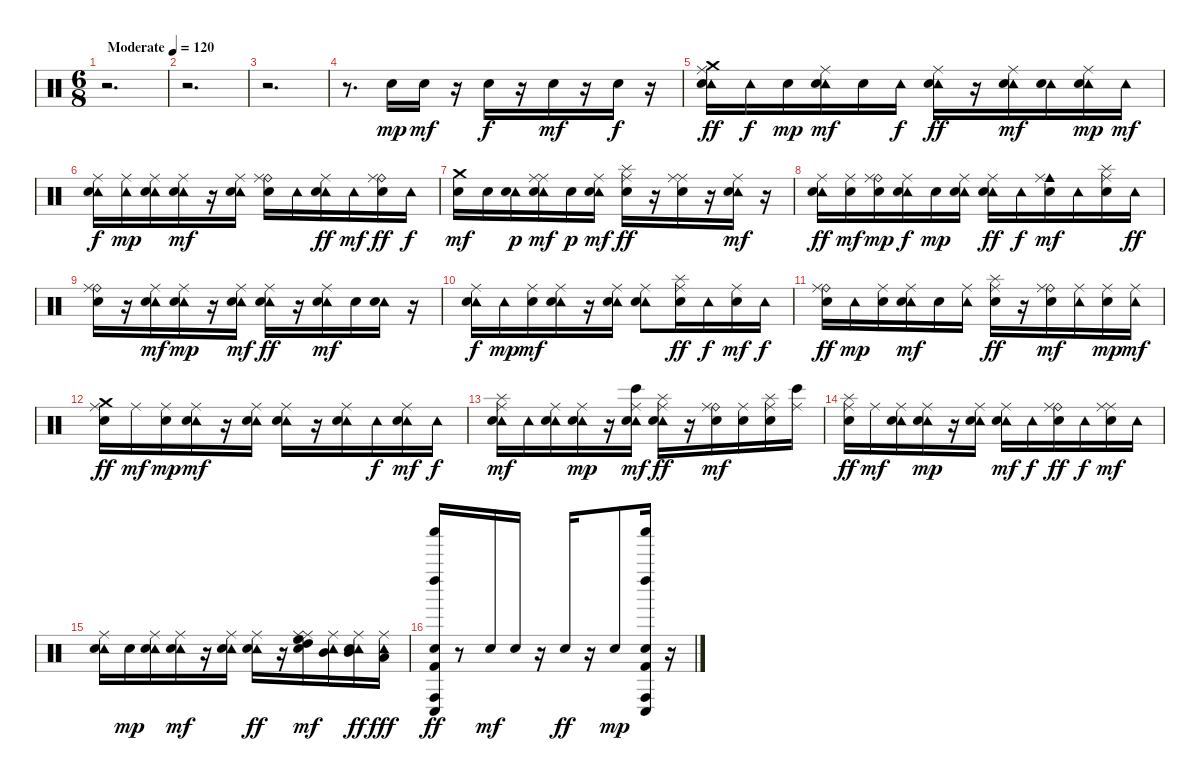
\track "" {instrument percussion}
\staff {score}
\articulation defaults
\ts (6 8)
\tempo (120 "Moderate")
\clef neutral
\ks c
r.2{d dy mp} |
r.2{d} |
r.2{d} |
r.8{d} "Hand Clap (hit)".16 "Hand Clap (hit)".16{dy mf} r.16 "Hand Clap (hit)".16{dy f} r.16 "Hand Clap (hit)".16{dy mf} r.16 "Hand Clap (hit)".16{dy f} r.16 |
("Crash medium (hit)" "Tambourine (hit)" "Ride (middle)" "Hand Clap (hit)").16{dy ff} "Tambourine (hit)".16{dy f} "Hand Clap (hit)".16{dy mp} ("Tambourine (hit)" "Ride (middle)" "Hand Clap (hit)").16{dy mf} "Hand Clap (hit)".16 "Tambourine (hit)".16{dy f} ("Tambourine (hit)" "Ride (middle)" "Hand Clap (hit)").16{dy ff} r.16 ("Tambourine (hit)" "Ride (middle)" "Hand Clap (hit)").16{dy mf} ("Tambourine (hit)" "Hand Clap (hit)").16 ("Tambourine (hit)" "Ride (middle)" "Hand Clap (hit)").16{dy mp} "Tambourine (hit)".16{dy mf} |
("Tambourine (hit)" "Ride (middle)" "Hand Clap (hit)").16{dy f} ("Tambourine (hit)" "Ride (middle)").16{dy mp} ("Tambourine (hit)" "Ride (middle)" "Hand Clap (hit)").16 ("Tambourine (hit)" "Ride (middle)" "Hand Clap (hit)").16{dy mf} r.16 ("Tambourine (hit)" "Ride (middle)" "Hand Clap (hit)").16 ("Ride (bell)" "Ride (middle)" "Hand Clap (hit)").16 "Tambourine (hit)".16 ("Tambourine (hit)" "Ride (middle)" "Hand Clap (hit)").16{dy ff} "Tambourine (hit)".16{dy mf} ("Ride (bell)" "Ride (middle)" "Hand Clap (hit)").16{dy ff} "Tambourine (hit)".16{dy f} |
("Crash medium (hit)" "Hand Clap (hit)").16{dy mf} "Hand Clap (hit)".16 ("Tambourine (hit)" "Hand Clap (hit)").16{dy p} ("Tambourine (hit)" "Ride (middle)" "Ride (middle)" "Hand Clap (hit)").16{dy mf} "Hand Clap (hit)".16{dy p} ("Tambourine (hit)" "Ride (middle)" "Hand Clap (hit)").16{dy mf} ("Splash (hit)" "Ride (middle)" "Hand Clap (hit)").16{dy ff} r.16 ("Ride (middle)" "Ride (middle)" "Hand Clap (hit)").16 r.16 ("Tambourine (hit)" "Ride (middle)" "Hand Clap (hit)").16{dy mf} r.16 |
("Tambourine (hit)" "Ride (middle)" "Hand Clap (hit)").16{dy ff} ("Ride (middle)" "Hand Clap (hit)").16{dy mf} ("Ride (bell)" "Ride (middle)" "Hand Clap (hit)").16{dy mp} ("Tambourine (hit)" "Ride (middle)" "Hand Clap (hit)").16{dy f} "Hand Clap (hit)".16{dy mp} ("Tambourine (hit)" "Ride (middle)" "Hand Clap (hit)").16 ("Tambourine (hit)" "Ride (middle)" "Hand Clap (hit)").16{dy ff} "Tambourine (hit)".16{dy f} ("Cowbell medium (hit)" "Ride (middle)" "Hand Clap (hit)").16{dy mf} "Tambourine (hit)".16 ("Splash (hit)" "Ride (middle)" "Hand Clap (hit)").16 "Tambourine (hit)".16{dy ff} |
("Ride (bell)" "Ride (middle)" "Hand Clap (hit)").16 r.16 ("Tambourine (hit)" "Ride (middle)" "Hand Clap (hit)").16{dy mf} ("Tambourine (hit)" "Ride (middle)" "Hand Clap (hit)").16{dy mp} r.16 ("Tambourine (hit)" "Ride (middle)" "Hand Clap (hit)").16{dy mf} ("Tambourine (hit)" "Ride (middle)" "Hand Clap (hit)").16{dy ff} r.16 ("Tambourine (hit)" "Ride (middle)" "Hand Clap (hit)").16{dy mf} "Hand Clap (hit)".16 ("Tambourine (hit)" "Hand Clap (hit)").16 r.16 |
("Tambourine (hit)" "Ride (middle)" "Hand Clap (hit)").16{dy f} "Tambourine (hit)".16{dy mp} ("Ride (middle)" "Hand Clap (hit)").16{dy mf} ("Tambourine (hit)" "Ride (middle)" "Hand Clap (hit)").16 r.16 ("Tambourine (hit)" "Ride (middle)" "Hand Clap (hit)").16 ("Tambourine (hit)" "Ride (middle)" "Hand Clap (hit)").8 ("Splash (hit)" "Ride (middle)" "Hand Clap (hit)").16{dy ff} "Tambourine (hit)".16{dy f} ("Ride (middle)" "Hand Clap (hit)").16{dy mf} "Tambourine (hit)".16{dy f} |
("Ride (bell)" "Ride (middle)" "Hand Clap (hit)").16{dy ff} "Tambourine (hit)".16{dy mp} ("Ride (middle)" "Hand Clap (hit)").16 ("Tambourine (hit)" "Ride (middle)" "Hand Clap (hit)").16{dy mf} "Hand Clap (hit)".16 ("Tambourine (hit)" "Ride (middle)").16 ("Splash (hit)" "Ride (middle)" "Hand Clap (hit)").16{dy ff} r.16 ("Ride (bell)" "Ride (middle)" "Hand Clap (hit)").16{dy mf} ("Tambourine (hit)" "Ride (middle)").16 ("Ride (middle)" "Hand Clap (hit)").16{dy mp} ("Tambourine (hit)" "Ride (middle)").16{dy mf} |
("Crash medium (hit)" "Ride (middle)" "Hand Clap (hit)").16{dy ff} "Ride (middle)".16{dy mf} ("Ride (middle)" "Hand Clap (hit)").16{dy mp} ("Tambourine (hit)" "Ride (middle)" "Hand Clap (hit)").16{dy mf} r.16 ("Tambourine (hit)" "Ride (middle)" "Hand Clap (hit)").16 ("Tambourine (hit)" "Ride (middle)" "Hand Clap (hit)").16 r.16 ("Tambourine (hit)" "Ride (middle)" "Hand Clap (hit)").16 "Tambourine (hit)".16{dy f} ("Tambourine (hit)" "Ride (middle)" "Hand Clap (hit)").16{dy mf} "Tambourine (hit)".16{dy f} |
("Tambourine (hit)" "Splash (hit)" "Ride (middle)" "Hand Clap (hit)").16{dy mf} "Tambourine (hit)".16 ("Tambourine (hit)" "Ride (middle)" "Hand Clap (hit)").16 ("Tambourine (hit)" "Ride (middle)" "Hand Clap (hit)").16{dy mp} r.16 ("Tambourine (hit)" "Bongo High (hit)" "Ride (middle)" "Hand Clap (hit)").16{dy mf} ("Tambourine (hit)" "Splash (hit)" "Ride (middle)" "Hand Clap (hit)").16{dy ff} r.16 ("Ride (bell)" "Ride (middle)" "Hand Clap (hit)").16{dy mf} ("Ride (middle)" "Hand Clap (hit)").16 ("Splash (hit)" "Ride (middle)" "Hand Clap (hit)").16 ("Bongo High (hit)" "Ride (middle)").16 |
("Splash (hit)" "Ride (middle)" "Hand Clap (hit)").16{dy ff} "Ride (middle)".16{dy mf} ("Tambourine (hit)" "Ride (middle)" "Hand Clap (hit)").16 ("Tambourine (hit)" "Ride (middle)" "Hand Clap (hit)").16{dy mp} r.16 ("Tambourine (hit)" "Ride (middle)" "Hand Clap (hit)").16 ("Tambourine (hit)" "Ride (middle)" "Hand Clap (hit)").16{dy mf} "Tambourine (hit)".16{dy f} ("Ride (bell)" "Ride (middle)" "Hand Clap (hit)").16{dy ff} "Tambourine (hit)".16{dy f} ("Ride (middle)" "Ride (middle)" "Hand Clap (hit)").16{dy mf} "Tambourine (hit)".16 |
("Tambourine (hit)" "Ride (middle)" "Hand Clap (hit)").16 "Hand Clap (hit)".16{dy mp} ("Tambourine (hit)" "Ride (middle)" "Hand Clap (hit)").16 ("Tambourine (hit)" "Ride (middle)" "Hand Clap (hit)").16{dy mf} r.16 ("Tambourine (hit)" "Ride (middle)" "Hand Clap (hit)").16 ("Tambourine (hit)" "Ride (middle)" "Hand Clap (hit)").16{dy ff} r.16 ("Ride (middle)" "High Floor Tom (hit)" "High Tom (hit)" "Ride (middle)" "Hand Clap (hit)").16{dy mf} ("Tambourine (hit)" "Mid Tom (hit)" "Ride (middle)").16 ("Tambourine (hit)" "Mid Tom (hit)" "Ride (middle)" "Hand Clap (hit)").16{dy ff} ("Tambourine (hit)" "Low Tom (hit)" "Ride (middle)").16{dy fff} |
("Kick (hit) 2" "Shaker (hit)" "Left Maraca (hit)" "Electric Snare (hit)" "Conga low (hit)" "Conga high (hit)").16{dy ff} r.8 "Hand Clap (hit)".16{dy mf} "Hand Clap (hit)".16 r.16 "Hand Clap (hit)".16{dy ff} r.16 "Hand Clap (hit)".8{dy mp} ("Kick (hit) 2" "Shaker (hit)" "Left Maraca (hit)" "Electric Snare (hit)" "Conga high (hit)" "Conga low (hit)").16 r.16
